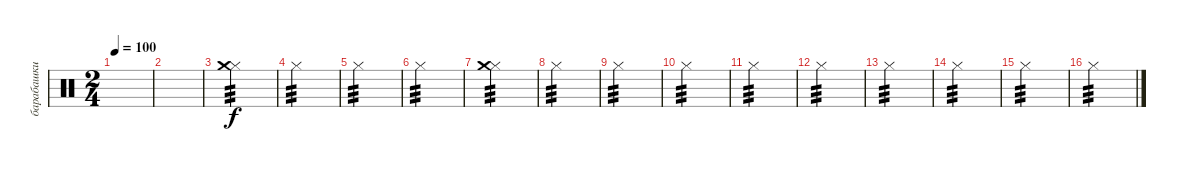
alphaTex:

\track ("барабашки high" "барабашки ") {instrument percussion}
\staff {score}
\articulation defaults
\ts (2 4)
\tempo 100
\clef neutral
\ks c
|
|
("Hi-Hat (closed)" "Crash medium (hit)").2{tp 3} |
"Hi-Hat (closed)".2{tp 3} |
"Hi-Hat (closed)".2{tp 3} |
"Hi-Hat (closed)".2{tp 3} |
("Hi-Hat (closed)" "Crash medium (hit)").2{tp 3} |
"Hi-Hat (closed)".2{tp 3} |
"Hi-Hat (closed)".2{tp 3} |
"Hi-Hat (closed)".2{tp 3} |
"Hi-Hat (closed)".2{tp 3} |
"Hi-Hat (closed)".2{tp 3} |
"Hi-Hat (closed)".2{tp 3} |
"Hi-Hat (closed)".2{tp 3} |
"Hi-Hat (closed)".2{tp 3} |
"Hi-Hat (closed)".2{tp 3}
